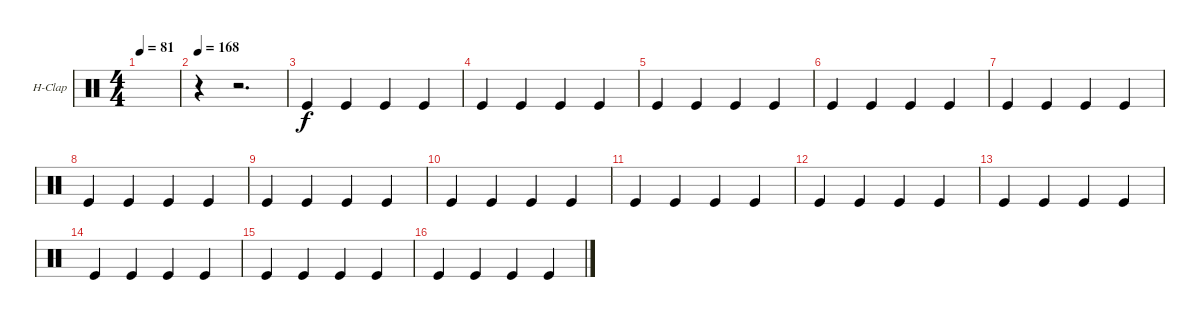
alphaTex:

\bracketExtendMode groupsimilarinstruments
\firstSystemTrackNameOrientation horizontal
\otherSystemsTrackNameOrientation horizontal
\track ("Hand Clap" "H-Clap") {instrument percussion}
\staff {score}
\articulation defaults
\ts (4 4)
\tempo 81
\clef neutral
\ks c
|
\tempo 168
r.4 r.2{d} |
"Kick (hit)".4 "Kick (hit)".4 "Kick (hit)".4 "Kick (hit)".4 |
"Kick (hit)".4 "Kick (hit)".4 "Kick (hit)".4 "Kick (hit)".4 |
"Kick (hit)".4 "Kick (hit)".4 "Kick (hit)".4 "Kick (hit)".4 |
"Kick (hit)".4 "Kick (hit)".4 "Kick (hit)".4 "Kick (hit)".4 |
"Kick (hit)".4 "Kick (hit)".4 "Kick (hit)".4 "Kick (hit)".4 |
"Kick (hit)".4 "Kick (hit)".4 "Kick (hit)".4 "Kick (hit)".4 |
"Kick (hit)".4 "Kick (hit)".4 "Kick (hit)".4 "Kick (hit)".4 |
"Kick (hit)".4 "Kick (hit)".4 "Kick (hit)".4 "Kick (hit)".4 |
"Kick (hit)".4 "Kick (hit)".4 "Kick (hit)".4 "Kick (hit)".4 |
"Kick (hit)".4 "Kick (hit)".4 "Kick (hit)".4 "Kick (hit)".4 |
"Kick (hit)".4 "Kick (hit)".4 "Kick (hit)".4 "Kick (hit)".4 |
"Kick (hit)".4 "Kick (hit)".4 "Kick (hit)".4 "Kick (hit)".4 |
"Kick (hit)".4 "Kick (hit)".4 "Kick (hit)".4 "Kick (hit)".4 |
"Kick (hit)".4 "Kick (hit)".4 "Kick (hit)".4 "Kick (hit)".4
